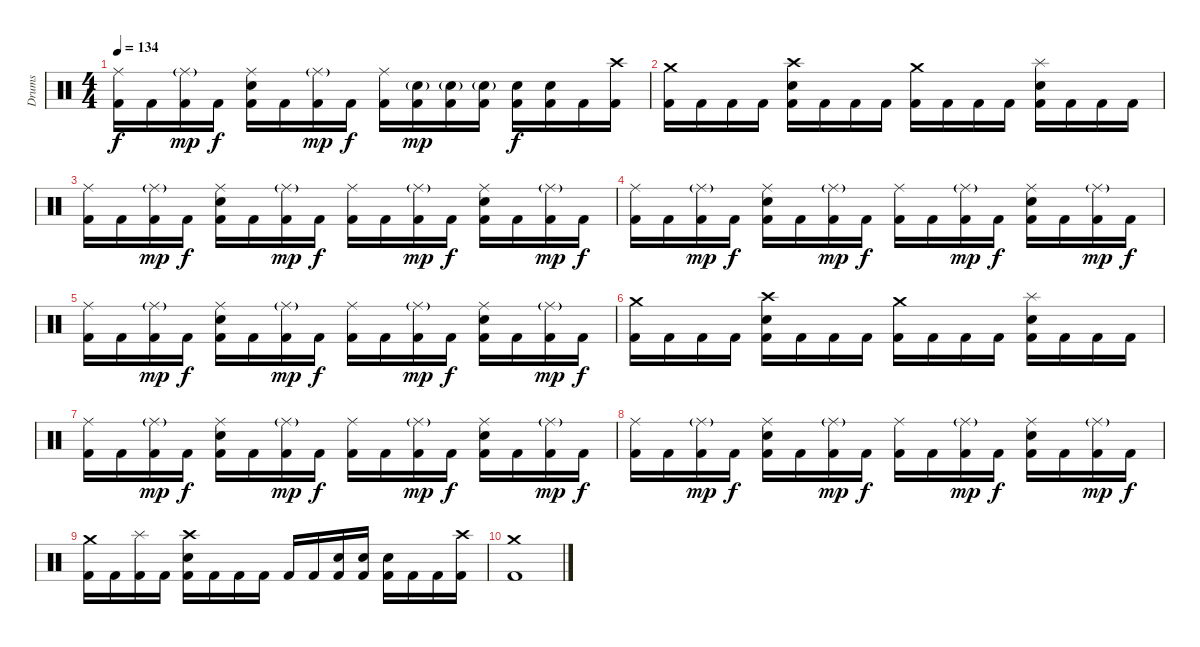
\track ("Drums" "Drums") {instrument percussion}
\staff {score}
\articulation defaults
\ts (4 4)
\tempo 134
\clef neutral
\ks c
("Ride (middle)" "Kick (hit) 2").16{dy f} "Kick (hit) 2".16 ("Ride (middle)"{g} "Kick (hit) 2").16{dy mp} "Kick (hit) 2".16{dy f} ("Ride (middle)" "Snare (hit) 2" "Kick (hit) 2").16 "Kick (hit) 2".16 ("Ride (middle)"{g} "Kick (hit) 2").16{dy mp} "Kick (hit) 2".16{dy f} ("Ride (middle)" "Kick (hit) 2").16 ("Snare (hit) 2"{g} "Kick (hit) 2").16{dy mp} ("Snare (hit) 2"{g} "Kick (hit) 2").16 ("Snare (hit) 2"{g} "Kick (hit) 2").16 ("Snare (hit) 2" "Kick (hit) 2").16{dy f} ("Snare (hit) 2" "Kick (hit) 2").16 "Kick (hit) 2".16 ("Crash high (hit)" "Kick (hit) 2").16 |
("Crash medium (hit)" "Kick (hit) 2").16 "Kick (hit) 2".16 "Kick (hit) 2".16 "Kick (hit) 2".16 ("Crash high (hit)" "Snare (hit) 2" "Kick (hit) 2").16 "Kick (hit) 2".16 "Kick (hit) 2".16 "Kick (hit) 2".16 ("Crash medium (hit)" "Kick (hit) 2").16 "Kick (hit) 2".16 "Kick (hit) 2".16 "Kick (hit) 2".16 ("Splash (hit)" "Snare (hit) 2" "Kick (hit) 2").16 "Kick (hit) 2".16 "Kick (hit) 2".16 "Kick (hit) 2".16 |
("Ride (middle)" "Kick (hit) 2").16 "Kick (hit) 2".16 ("Ride (middle)"{g} "Kick (hit) 2").16{dy mp} "Kick (hit) 2".16{dy f} ("Ride (middle)" "Snare (hit) 2" "Kick (hit) 2").16 "Kick (hit) 2".16 ("Ride (middle)"{g} "Kick (hit) 2").16{dy mp} "Kick (hit) 2".16{dy f} ("Ride (middle)" "Kick (hit) 2").16 "Kick (hit) 2".16 ("Ride (middle)"{g} "Kick (hit) 2").16{dy mp} "Kick (hit) 2".16{dy f} ("Ride (middle)" "Snare (hit) 2" "Kick (hit) 2").16 "Kick (hit) 2".16 ("Ride (middle)"{g} "Kick (hit) 2").16{dy mp} "Kick (hit) 2".16{dy f} |
("Ride (middle)" "Kick (hit) 2").16{volume 12} "Kick (hit) 2".16 ("Ride (middle)"{g} "Kick (hit) 2").16{dy mp} "Kick (hit) 2".16{dy f} ("Ride (middle)" "Snare (hit) 2" "Kick (hit) 2").16 "Kick (hit) 2".16 ("Ride (middle)"{g} "Kick (hit) 2").16{dy mp} "Kick (hit) 2".16{dy f} ("Ride (middle)" "Kick (hit) 2").16 "Kick (hit) 2".16 ("Ride (middle)"{g} "Kick (hit) 2").16{dy mp} "Kick (hit) 2".16{dy f} ("Ride (middle)" "Snare (hit) 2" "Kick (hit) 2").16 "Kick (hit) 2".16 ("Ride (middle)"{g} "Kick (hit) 2").16{dy mp} "Kick (hit) 2".16{dy f} |
("Ride (middle)" "Kick (hit) 2").16{volume 10} "Kick (hit) 2".16 ("Ride (middle)"{g} "Kick (hit) 2").16{dy mp} "Kick (hit) 2".16{dy f} ("Ride (middle)" "Snare (hit) 2" "Kick (hit) 2").16 "Kick (hit) 2".16 ("Ride (middle)"{g} "Kick (hit) 2").16{dy mp} "Kick (hit) 2".16{dy f} ("Ride (middle)" "Kick (hit) 2").16 "Kick (hit) 2".16 ("Ride (middle)"{g} "Kick (hit) 2").16{dy mp} "Kick (hit) 2".16{dy f} ("Ride (middle)" "Snare (hit) 2" "Kick (hit) 2").16 "Kick (hit) 2".16 ("Ride (middle)"{g} "Kick (hit) 2").16{dy mp} "Kick (hit) 2".16{dy f} |
("Crash medium (hit)" "Kick (hit) 2").16{volume 8} "Kick (hit) 2".16 "Kick (hit) 2".16 "Kick (hit) 2".16 ("Crash high (hit)" "Snare (hit) 2" "Kick (hit) 2").16 "Kick (hit) 2".16 "Kick (hit) 2".16 "Kick (hit) 2".16 ("Crash medium (hit)" "Kick (hit) 2").16 "Kick (hit) 2".16 "Kick (hit) 2".16 "Kick (hit) 2".16 ("Splash (hit)" "Snare (hit) 2" "Kick (hit) 2").16 "Kick (hit) 2".16 "Kick (hit) 2".16 "Kick (hit) 2".16 |
("Ride (middle)" "Kick (hit) 2").16{volume 6} "Kick (hit) 2".16 ("Ride (middle)"{g} "Kick (hit) 2").16{dy mp} "Kick (hit) 2".16{dy f} ("Ride (middle)" "Snare (hit) 2" "Kick (hit) 2").16 "Kick (hit) 2".16 ("Ride (middle)"{g} "Kick (hit) 2").16{dy mp} "Kick (hit) 2".16{dy f} ("Ride (middle)" "Kick (hit) 2").16 "Kick (hit) 2".16 ("Ride (middle)"{g} "Kick (hit) 2").16{dy mp} "Kick (hit) 2".16{dy f} ("Ride (middle)" "Snare (hit) 2" "Kick (hit) 2").16 "Kick (hit) 2".16 ("Ride (middle)"{g} "Kick (hit) 2").16{dy mp} "Kick (hit) 2".16{dy f} |
("Ride (middle)" "Kick (hit) 2").16{volume 4} "Kick (hit) 2".16 ("Ride (middle)"{g} "Kick (hit) 2").16{dy mp} "Kick (hit) 2".16{dy f} ("Ride (middle)" "Snare (hit) 2" "Kick (hit) 2").16 "Kick (hit) 2".16 ("Ride (middle)"{g} "Kick (hit) 2").16{dy mp} "Kick (hit) 2".16{dy f} ("Ride (middle)" "Kick (hit) 2").16 "Kick (hit) 2".16 ("Ride (middle)"{g} "Kick (hit) 2").16{dy mp} "Kick (hit) 2".16{dy f} ("Ride (middle)" "Snare (hit) 2" "Kick (hit) 2").16 "Kick (hit) 2".16 ("Ride (middle)"{g} "Kick (hit) 2").16{dy mp} "Kick (hit) 2".16{dy f} |
("Crash medium (hit)" "Kick (hit) 2").16{volume 2} "Kick (hit) 2".16 ("Splash (hit)" "Kick (hit) 2").16 "Kick (hit) 2".16 ("Crash high (hit)" "Snare (hit) 2" "Kick (hit) 2").16 "Kick (hit) 2".16 "Kick (hit) 2".16 "Kick (hit) 2".16 "Kick (hit) 2".16 "Kick (hit) 2".16 ("Snare (hit) 2" "Kick (hit) 2").16 ("Snare (hit) 2" "Kick (hit) 2").16 ("Snare (hit) 2" "Kick (hit) 2").16 "Kick (hit) 2".16 "Kick (hit) 2".16 ("Crash high (hit)" "Kick (hit) 2").16 |
("Crash medium (hit)" "Kick (hit) 2").1{volume 0}
